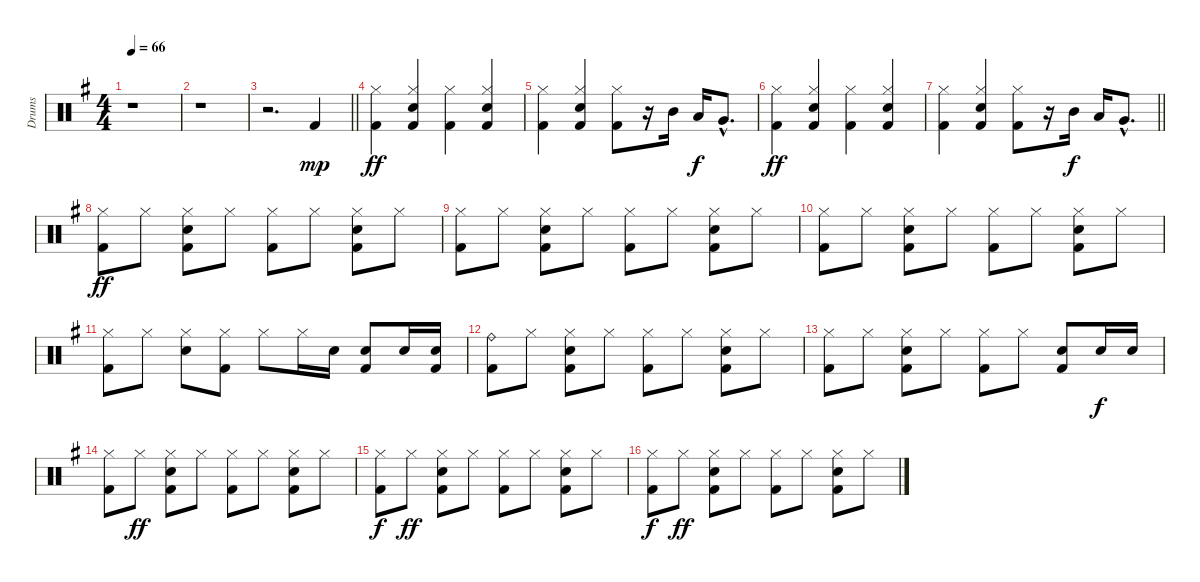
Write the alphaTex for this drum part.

\track ("Drums" "Drums") {instrument percussion}
\staff {score}
\articulation defaults
\ts (4 4)
\tempo 66
\clef neutral
\ks g
r.1{dy mp} |
r.1 |
\barLineRight lightlight
r.2{d} "Kick (hit) 2".4 |
("Hi-Hat (closed)" "Kick (hit) 2").4{dy ff} ("Hi-Hat (closed)" "Snare (hit) 2" "Kick (hit) 2").4 ("Hi-Hat (closed)" "Kick (hit) 2").4 ("Hi-Hat (closed)" "Snare (hit) 2" "Kick (hit) 2").4 |
("Hi-Hat (closed)" "Kick (hit) 2").4 ("Hi-Hat (closed)" "Snare (hit) 2" "Kick (hit) 2").4 ("Hi-Hat (closed)" "Kick (hit) 2").8 r.16 "Mid Tom (hit)".16 "Low Tom (hit)".16{dy f} "Very Low Tom (hit)"{hac}.8{d} |
("Hi-Hat (closed)" "Kick (hit) 2").4{dy ff} ("Hi-Hat (closed)" "Snare (hit) 2" "Kick (hit) 2").4 ("Hi-Hat (closed)" "Kick (hit) 2").4 ("Hi-Hat (closed)" "Snare (hit) 2" "Kick (hit) 2").4 |
\barLineRight lightlight
("Hi-Hat (closed)" "Kick (hit) 2").4 ("Hi-Hat (closed)" "Snare (hit) 2" "Kick (hit) 2").4 ("Hi-Hat (closed)" "Kick (hit) 2").8 r.16 "Mid Tom (hit)".16{dy f} "Low Tom (hit)".16 "Very Low Tom (hit)"{hac}.8{d} |
("Hi-Hat (closed)" "Kick (hit) 2").8{dy ff} "Hi-Hat (closed)".8 ("Hi-Hat (closed)" "Snare (hit) 2" "Kick (hit) 2").8 "Hi-Hat (closed)".8 ("Hi-Hat (closed)" "Kick (hit) 2").8 "Hi-Hat (closed)".8 ("Hi-Hat (closed)" "Snare (hit) 2" "Kick (hit) 2").8 "Hi-Hat (closed)".8 |
("Hi-Hat (closed)" "Kick (hit) 2").8 "Hi-Hat (closed)".8 ("Hi-Hat (closed)" "Snare (hit) 2" "Kick (hit) 2").8 "Hi-Hat (closed)".8 ("Hi-Hat (closed)" "Kick (hit) 2").8 "Hi-Hat (closed)".8 ("Hi-Hat (closed)" "Snare (hit) 2" "Kick (hit) 2").8 "Hi-Hat (closed)".8 |
("Hi-Hat (closed)" "Kick (hit) 2").8 "Hi-Hat (closed)".8 ("Hi-Hat (closed)" "Snare (hit) 2" "Kick (hit) 2").8 "Hi-Hat (closed)".8 ("Hi-Hat (closed)" "Kick (hit) 2").8 "Hi-Hat (closed)".8 ("Hi-Hat (closed)" "Snare (hit) 2" "Kick (hit) 2").8 "Hi-Hat (closed)".8 |
("Hi-Hat (closed)" "Kick (hit) 2").8 "Hi-Hat (closed)".8 ("Hi-Hat (closed)" "Snare (hit) 2").8 ("Hi-Hat (closed)" "Kick (hit) 2").8 "Hi-Hat (closed)".8 "Hi-Hat (closed)".16 "Snare (hit) 2".16 ("Snare (hit) 2" "Kick (hit) 2").8 "Snare (hit) 2".16 ("Snare (hit) 2" "Kick (hit) 2").16 |
("Ride (bell)" "Kick (hit) 2").8 "Hi-Hat (closed)".8 ("Hi-Hat (closed)" "Snare (hit) 2" "Kick (hit) 2").8 "Hi-Hat (closed)".8 ("Hi-Hat (closed)" "Kick (hit) 2").8 "Hi-Hat (closed)".8 ("Hi-Hat (closed)" "Snare (hit) 2" "Kick (hit) 2").8 "Hi-Hat (closed)".8 |
("Hi-Hat (closed)" "Kick (hit) 2").8 "Hi-Hat (closed)".8 ("Hi-Hat (closed)" "Snare (hit) 2" "Kick (hit) 2").8 "Hi-Hat (closed)".8 ("Hi-Hat (closed)" "Kick (hit) 2").8 "Hi-Hat (closed)".8 ("Snare (hit) 2" "Kick (hit) 2").8 "Snare (hit) 2".16{dy f} "Snare (hit) 2".16 |
("Hi-Hat (closed)" "Kick (hit) 2").8 "Hi-Hat (closed)".8{dy ff} ("Hi-Hat (closed)" "Snare (hit) 2" "Kick (hit) 2").8 "Hi-Hat (closed)".8 ("Hi-Hat (closed)" "Kick (hit) 2").8 "Hi-Hat (closed)".8 ("Hi-Hat (closed)" "Snare (hit) 2" "Kick (hit) 2").8 "Hi-Hat (closed)".8 |
("Hi-Hat (closed)" "Kick (hit) 2").8{dy f} "Hi-Hat (closed)".8{dy ff} ("Hi-Hat (closed)" "Snare (hit) 2" "Kick (hit) 2").8 "Hi-Hat (closed)".8 ("Hi-Hat (closed)" "Kick (hit) 2").8 "Hi-Hat (closed)".8 ("Hi-Hat (closed)" "Snare (hit) 2" "Kick (hit) 2").8 "Hi-Hat (closed)".8 |
("Hi-Hat (closed)" "Kick (hit) 2").8{dy f} "Hi-Hat (closed)".8{dy ff} ("Hi-Hat (closed)" "Snare (hit) 2" "Kick (hit) 2").8 "Hi-Hat (closed)".8 ("Hi-Hat (closed)" "Kick (hit) 2").8 "Hi-Hat (closed)".8 ("Hi-Hat (closed)" "Snare (hit) 2" "Kick (hit) 2").8 "Hi-Hat (closed)".8
